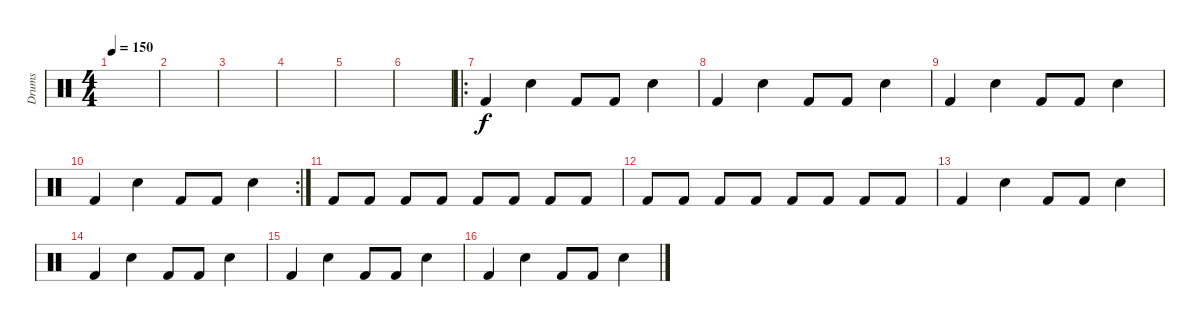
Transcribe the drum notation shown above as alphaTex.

\track ("Drums" "Drums") {instrument percussion}
\staff {score}
\articulation defaults
\ts (4 4)
\tempo 150
\clef neutral
\ks c
|
|
|
|
|
|
\ro "Kick (hit) 2".4 "Snare (hit) 2".4 "Kick (hit) 2".8 "Kick (hit) 2".8 "Snare (hit) 2".4
|
"Kick (hit) 2".4 "Snare (hit) 2".4 "Kick (hit) 2".8 "Kick (hit) 2".8 "Snare (hit) 2".4 |
"Kick (hit) 2".4 "Snare (hit) 2".4 "Kick (hit) 2".8 "Kick (hit) 2".8 "Snare (hit) 2".4 |
\rc 2 "Kick (hit) 2".4 "Snare (hit) 2".4 "Kick (hit) 2".8 "Kick (hit) 2".8 "Snare (hit) 2".4
|
"Kick (hit) 2".8 "Kick (hit) 2".8 "Kick (hit) 2".8 "Kick (hit) 2".8 "Kick (hit) 2".8 "Kick (hit) 2".8 "Kick (hit) 2".8 "Kick (hit) 2".8 |
"Kick (hit) 2".8 "Kick (hit) 2".8 "Kick (hit) 2".8 "Kick (hit) 2".8 "Kick (hit) 2".8 "Kick (hit) 2".8 "Kick (hit) 2".8 "Kick (hit) 2".8 |
"Kick (hit) 2".4 "Snare (hit) 2".4 "Kick (hit) 2".8 "Kick (hit) 2".8 "Snare (hit) 2".4 |
"Kick (hit) 2".4 "Snare (hit) 2".4 "Kick (hit) 2".8 "Kick (hit) 2".8 "Snare (hit) 2".4 |
"Kick (hit) 2".4 "Snare (hit) 2".4 "Kick (hit) 2".8 "Kick (hit) 2".8 "Snare (hit) 2".4 |
"Kick (hit) 2".4 "Snare (hit) 2".4 "Kick (hit) 2".8 "Kick (hit) 2".8 "Snare (hit) 2".4
